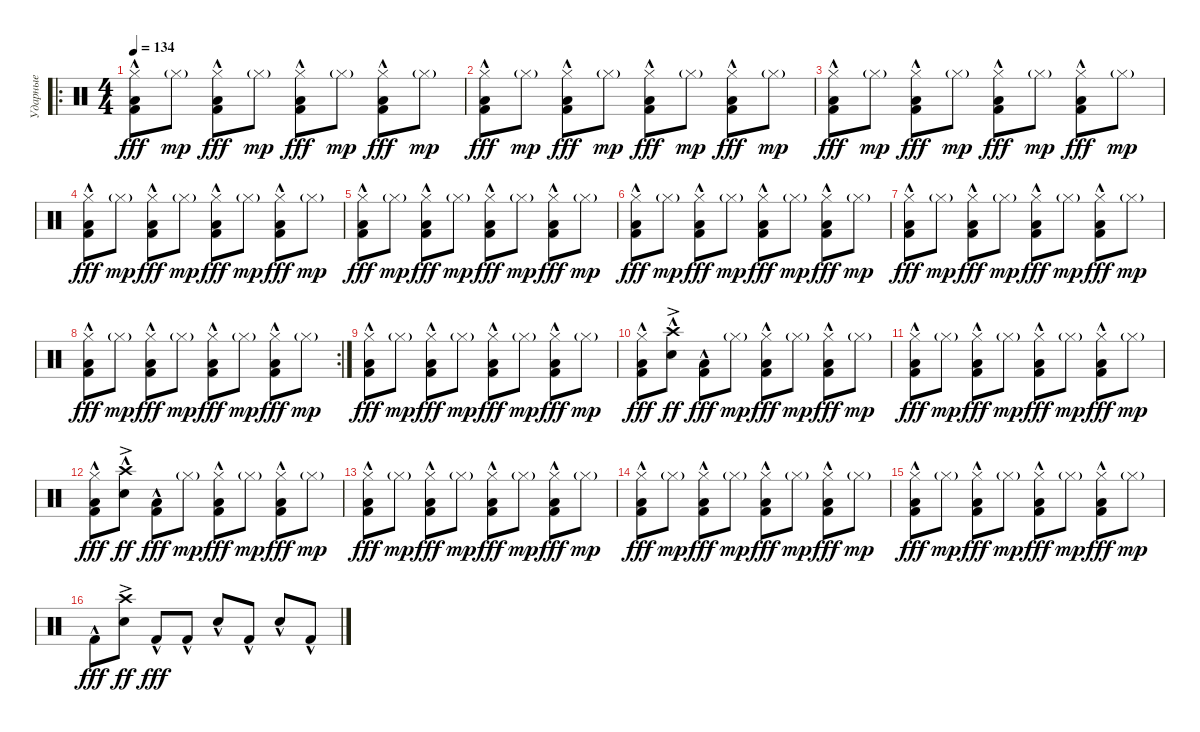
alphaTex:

\track ("Ударные" "Ударные") {instrument percussion}
\staff {score}
\articulation defaults
\ro
\ts (4 4)
\tempo 134
\clef neutral
\ks c
("Hi-Hat (closed)" "Low Floor Tom (hit)"{hac} "Kick (hit) 2"{hac}).8{dy fff} "Hi-Hat (closed)"{g}.8{dy mp} ("Hi-Hat (closed)" "Low Floor Tom (hit)"{hac} "Kick (hit) 2"{hac}).8{dy fff} "Hi-Hat (closed)"{g}.8{dy mp} ("Hi-Hat (closed)" "Low Floor Tom (hit)"{hac} "Kick (hit) 2"{hac}).8{dy fff} "Hi-Hat (closed)"{g}.8{dy mp} ("Hi-Hat (closed)" "Low Floor Tom (hit)"{hac} "Kick (hit) 2"{hac}).8{dy fff} "Hi-Hat (closed)"{g}.8{dy mp} |
("Hi-Hat (closed)" "Low Floor Tom (hit)"{hac} "Kick (hit) 2"{hac}).8{dy fff} "Hi-Hat (closed)"{g}.8{dy mp} ("Hi-Hat (closed)" "Low Floor Tom (hit)"{hac} "Kick (hit) 2"{hac}).8{dy fff} "Hi-Hat (closed)"{g}.8{dy mp} ("Hi-Hat (closed)" "Low Floor Tom (hit)"{hac} "Kick (hit) 2"{hac}).8{dy fff} "Hi-Hat (closed)"{g}.8{dy mp} ("Hi-Hat (closed)" "Low Floor Tom (hit)"{hac} "Kick (hit) 2"{hac}).8{dy fff} "Hi-Hat (closed)"{g}.8{dy mp} |
("Hi-Hat (closed)" "Low Floor Tom (hit)"{hac} "Kick (hit) 2"{hac}).8{dy fff} "Hi-Hat (closed)"{g}.8{dy mp} ("Hi-Hat (closed)" "Low Floor Tom (hit)"{hac} "Kick (hit) 2"{hac}).8{dy fff} "Hi-Hat (closed)"{g}.8{dy mp} ("Hi-Hat (closed)" "Low Floor Tom (hit)"{hac} "Kick (hit) 2"{hac}).8{dy fff} "Hi-Hat (closed)"{g}.8{dy mp} ("Hi-Hat (closed)" "Low Floor Tom (hit)"{hac} "Kick (hit) 2"{hac}).8{dy fff} "Hi-Hat (closed)"{g}.8{dy mp} |
("Hi-Hat (closed)" "Low Floor Tom (hit)"{hac} "Kick (hit) 2"{hac}).8{dy fff} "Hi-Hat (closed)"{g}.8{dy mp} ("Hi-Hat (closed)" "Low Floor Tom (hit)"{hac} "Kick (hit) 2"{hac}).8{dy fff} "Hi-Hat (closed)"{g}.8{dy mp} ("Hi-Hat (closed)" "Low Floor Tom (hit)"{hac} "Kick (hit) 2"{hac}).8{dy fff} "Hi-Hat (closed)"{g}.8{dy mp} ("Hi-Hat (closed)" "Low Floor Tom (hit)"{hac} "Kick (hit) 2"{hac}).8{dy fff} "Hi-Hat (closed)"{g}.8{dy mp} |
("Hi-Hat (closed)" "Low Floor Tom (hit)"{hac} "Kick (hit) 2"{hac}).8{dy fff} "Hi-Hat (closed)"{g}.8{dy mp} ("Hi-Hat (closed)" "Low Floor Tom (hit)"{hac} "Kick (hit) 2"{hac}).8{dy fff} "Hi-Hat (closed)"{g}.8{dy mp} ("Hi-Hat (closed)" "Low Floor Tom (hit)"{hac} "Kick (hit) 2"{hac}).8{dy fff} "Hi-Hat (closed)"{g}.8{dy mp} ("Hi-Hat (closed)" "Low Floor Tom (hit)"{hac} "Kick (hit) 2"{hac}).8{dy fff} "Hi-Hat (closed)"{g}.8{dy mp} |
("Hi-Hat (closed)" "Low Floor Tom (hit)"{hac} "Kick (hit) 2"{hac}).8{dy fff} "Hi-Hat (closed)"{g}.8{dy mp} ("Hi-Hat (closed)" "Low Floor Tom (hit)"{hac} "Kick (hit) 2"{hac}).8{dy fff} "Hi-Hat (closed)"{g}.8{dy mp} ("Hi-Hat (closed)" "Low Floor Tom (hit)"{hac} "Kick (hit) 2"{hac}).8{dy fff} "Hi-Hat (closed)"{g}.8{dy mp} ("Hi-Hat (closed)" "Low Floor Tom (hit)"{hac} "Kick (hit) 2"{hac}).8{dy fff} "Hi-Hat (closed)"{g}.8{dy mp} |
("Hi-Hat (closed)" "Low Floor Tom (hit)"{hac} "Kick (hit) 2"{hac}).8{dy fff} "Hi-Hat (closed)"{g}.8{dy mp} ("Hi-Hat (closed)" "Low Floor Tom (hit)"{hac} "Kick (hit) 2"{hac}).8{dy fff} "Hi-Hat (closed)"{g}.8{dy mp} ("Hi-Hat (closed)" "Low Floor Tom (hit)"{hac} "Kick (hit) 2"{hac}).8{dy fff} "Hi-Hat (closed)"{g}.8{dy mp} ("Hi-Hat (closed)" "Low Floor Tom (hit)"{hac} "Kick (hit) 2"{hac}).8{dy fff} "Hi-Hat (closed)"{g}.8{dy mp} |
\rc 2
("Hi-Hat (closed)" "Low Floor Tom (hit)"{hac} "Kick (hit) 2"{hac}).8{dy fff} "Hi-Hat (closed)"{g}.8{dy mp} ("Hi-Hat (closed)" "Low Floor Tom (hit)"{hac} "Kick (hit) 2"{hac}).8{dy fff} "Hi-Hat (closed)"{g}.8{dy mp} ("Hi-Hat (closed)" "Low Floor Tom (hit)"{hac} "Kick (hit) 2"{hac}).8{dy fff} "Hi-Hat (closed)"{g}.8{dy mp} ("Hi-Hat (closed)" "Low Floor Tom (hit)"{hac} "Kick (hit) 2"{hac}).8{dy fff} "Hi-Hat (closed)"{g}.8{dy mp} |
("Hi-Hat (closed)" "Low Floor Tom (hit)"{hac} "Kick (hit) 2"{hac}).8{dy fff} "Hi-Hat (closed)"{g}.8{dy mp} ("Hi-Hat (closed)" "Low Floor Tom (hit)"{hac} "Kick (hit) 2"{hac}).8{dy fff} "Hi-Hat (closed)"{g}.8{dy mp} ("Hi-Hat (closed)" "Low Floor Tom (hit)"{hac} "Kick (hit) 2"{hac}).8{dy fff} "Hi-Hat (closed)"{g}.8{dy mp} ("Hi-Hat (closed)" "Low Floor Tom (hit)"{hac} "Kick (hit) 2"{hac}).8{dy fff} "Hi-Hat (closed)"{g}.8{dy mp} |
("Hi-Hat (closed)" "Low Floor Tom (hit)"{hac} "Kick (hit) 2"{hac}).8{dy fff} ("Crash high (hit)"{hac} "Snare (hit) 2"{ac}).8{dy ff} ("Low Floor Tom (hit)"{hac} "Kick (hit) 2"{hac}).8{dy fff} "Hi-Hat (closed)"{g}.8{dy mp} ("Hi-Hat (closed)" "Low Floor Tom (hit)"{hac} "Kick (hit) 2"{hac}).8{dy fff} "Hi-Hat (closed)"{g}.8{dy mp} ("Hi-Hat (closed)" "Low Floor Tom (hit)"{hac} "Kick (hit) 2"{hac}).8{dy fff} "Hi-Hat (closed)"{g}.8{dy mp} |
("Hi-Hat (closed)" "Low Floor Tom (hit)"{hac} "Kick (hit) 2"{hac}).8{dy fff} "Hi-Hat (closed)"{g}.8{dy mp} ("Hi-Hat (closed)" "Low Floor Tom (hit)"{hac} "Kick (hit) 2"{hac}).8{dy fff} "Hi-Hat (closed)"{g}.8{dy mp} ("Hi-Hat (closed)" "Low Floor Tom (hit)"{hac} "Kick (hit) 2"{hac}).8{dy fff} "Hi-Hat (closed)"{g}.8{dy mp} ("Hi-Hat (closed)" "Low Floor Tom (hit)"{hac} "Kick (hit) 2"{hac}).8{dy fff} "Hi-Hat (closed)"{g}.8{dy mp} |
("Hi-Hat (closed)" "Low Floor Tom (hit)"{hac} "Kick (hit) 2"{hac}).8{dy fff} ("Crash high (hit)"{hac} "Snare (hit) 2"{ac}).8{dy ff} ("Low Floor Tom (hit)"{hac} "Kick (hit) 2"{hac}).8{dy fff} "Hi-Hat (closed)"{g}.8{dy mp} ("Hi-Hat (closed)" "Low Floor Tom (hit)"{hac} "Kick (hit) 2"{hac}).8{dy fff} "Hi-Hat (closed)"{g}.8{dy mp} ("Hi-Hat (closed)" "Low Floor Tom (hit)"{hac} "Kick (hit) 2"{hac}).8{dy fff} "Hi-Hat (closed)"{g}.8{dy mp} |
("Hi-Hat (closed)" "Low Floor Tom (hit)"{hac} "Kick (hit) 2"{hac}).8{dy fff} "Hi-Hat (closed)"{g}.8{dy mp} ("Hi-Hat (closed)" "Low Floor Tom (hit)"{hac} "Kick (hit) 2"{hac}).8{dy fff} "Hi-Hat (closed)"{g}.8{dy mp} ("Hi-Hat (closed)" "Low Floor Tom (hit)"{hac} "Kick (hit) 2"{hac}).8{dy fff} "Hi-Hat (closed)"{g}.8{dy mp} ("Hi-Hat (closed)" "Low Floor Tom (hit)"{hac} "Kick (hit) 2"{hac}).8{dy fff} "Hi-Hat (closed)"{g}.8{dy mp} |
("Hi-Hat (closed)" "Low Floor Tom (hit)"{hac} "Kick (hit) 2"{hac}).8{dy fff} "Hi-Hat (closed)"{g}.8{dy mp} ("Hi-Hat (closed)" "Low Floor Tom (hit)"{hac} "Kick (hit) 2"{hac}).8{dy fff} "Hi-Hat (closed)"{g}.8{dy mp} ("Hi-Hat (closed)" "Low Floor Tom (hit)"{hac} "Kick (hit) 2"{hac}).8{dy fff} "Hi-Hat (closed)"{g}.8{dy mp} ("Hi-Hat (closed)" "Low Floor Tom (hit)"{hac} "Kick (hit) 2"{hac}).8{dy fff} "Hi-Hat (closed)"{g}.8{dy mp} |
("Hi-Hat (closed)" "Low Floor Tom (hit)"{hac} "Kick (hit) 2"{hac}).8{dy fff} "Hi-Hat (closed)"{g}.8{dy mp} ("Hi-Hat (closed)" "Low Floor Tom (hit)"{hac} "Kick (hit) 2"{hac}).8{dy fff} "Hi-Hat (closed)"{g}.8{dy mp} ("Hi-Hat (closed)" "Low Floor Tom (hit)"{hac} "Kick (hit) 2"{hac}).8{dy fff} "Hi-Hat (closed)"{g}.8{dy mp} ("Hi-Hat (closed)" "Low Floor Tom (hit)"{hac} "Kick (hit) 2"{hac}).8{dy fff} "Hi-Hat (closed)"{g}.8{dy mp} |
"Kick (hit) 2"{hac}.8{dy fff} ("Crash high (hit)"{ac} "Snare (hit) 2").8{dy ff} "Kick (hit) 2"{hac}.8{dy fff} "Kick (hit) 2"{hac}.8 "Snare (hit) 2"{hac}.8 "Kick (hit) 2"{hac}.8 "Snare (hit) 2"{hac}.8 "Kick (hit) 2"{hac}.8
